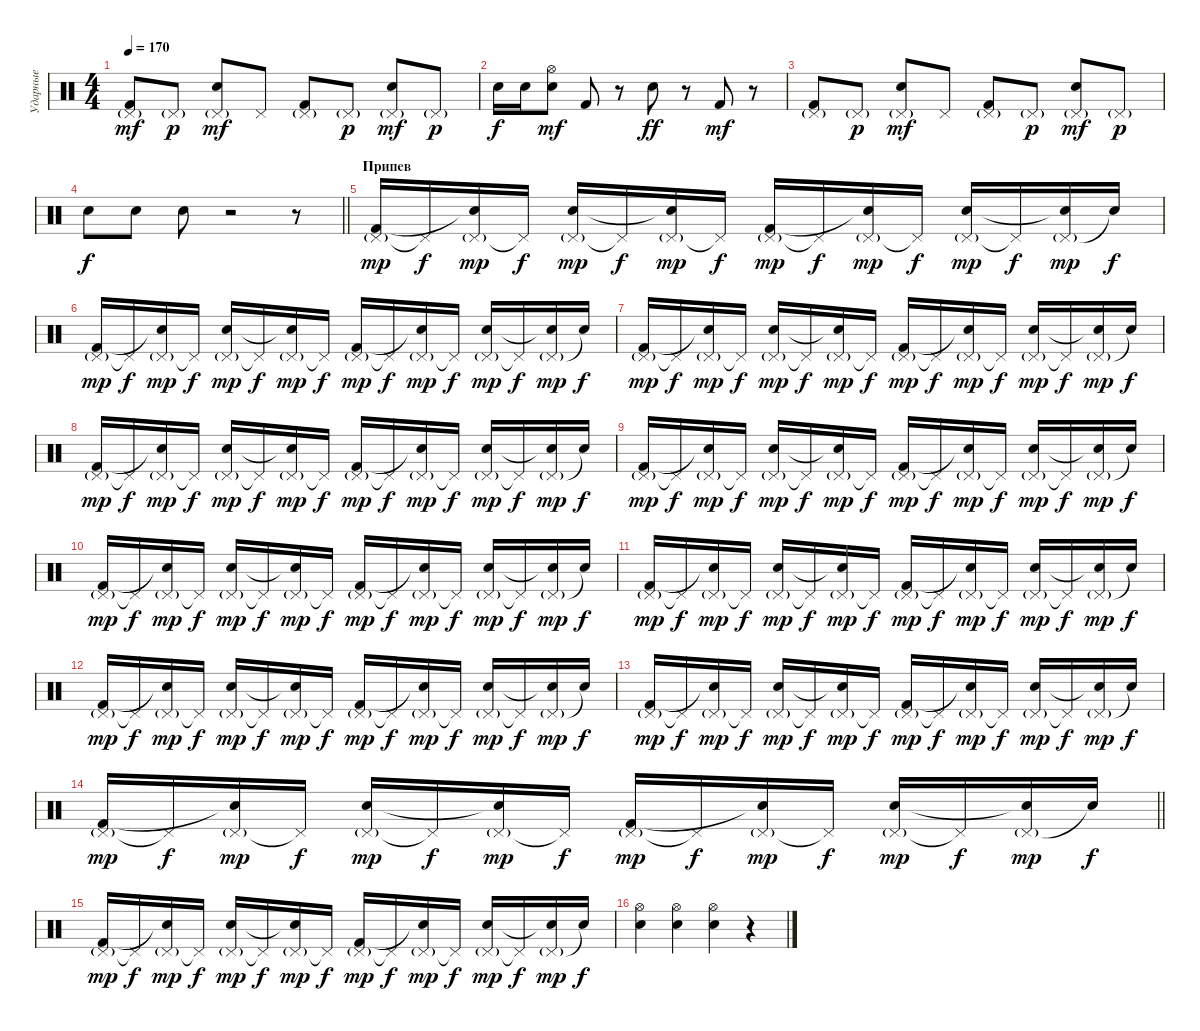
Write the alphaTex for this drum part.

\track ("Ударные" "Ударные") {instrument percussion}
\staff {score}
\articulation defaults
\ts (4 4)
\tempo 170
\clef neutral
\ks c
("Pedal Hi-Hat (hit)"{g} "Kick (hit) 2").8{dy mf} "Pedal Hi-Hat (hit)"{g}.8{dy p} ("Pedal Hi-Hat (hit)"{g} "Electric Snare (hit)").8{dy mf} "Pedal Hi-Hat (hit)".8 ("Pedal Hi-Hat (hit)"{g} "Kick (hit) 2").8 "Pedal Hi-Hat (hit)"{g}.8{dy p} ("Pedal Hi-Hat (hit)"{g} "Electric Snare (hit)").8{dy mf} "Pedal Hi-Hat (hit)"{g}.8{dy p} |
"Snare (hit) 2".16{dy f} "Snare (hit) 2".16 ("Hi-Hat (open)" "Electric Snare (hit)").8{dy mf} "Kick (hit) 2".8 r.8 "Electric Snare (hit)".8{dy ff} r.8 "Kick (hit) 2".8{dy mf} r.8 |
("Pedal Hi-Hat (hit)"{g} "Kick (hit) 2").8 "Pedal Hi-Hat (hit)"{g}.8{dy p} ("Pedal Hi-Hat (hit)"{g} "Electric Snare (hit)").8{dy mf} "Pedal Hi-Hat (hit)".8 ("Pedal Hi-Hat (hit)"{g} "Kick (hit) 2").8 "Pedal Hi-Hat (hit)"{g}.8{dy p} ("Pedal Hi-Hat (hit)"{g} "Electric Snare (hit)").8{dy mf} "Pedal Hi-Hat (hit)"{g}.8{dy p} |
\barLineRight lightlight "Electric Snare (hit)".8{dy f} "Electric Snare (hit)".8 "Electric Snare (hit)".8
r.2 r.8 |
\section ("" "Припев")
("Pedal Hi-Hat (hit)"{g} "Kick (hit) 2").16{dy mp} "Pedal Hi-Hat (hit)"{t}.16{dy f} ("Pedal Hi-Hat (hit)"{g} "Snare (hit)"{t}).16{dy mp} "Pedal Hi-Hat (hit)"{t}.16{dy f} ("Pedal Hi-Hat (hit)"{g} "Electric Snare (hit)").16{dy mp} "Pedal Hi-Hat (hit)"{t}.16{dy f} ("Pedal Hi-Hat (hit)"{g} "Snare (hit)"{t}).16{dy mp} "Pedal Hi-Hat (hit)"{t}.16{dy f} ("Pedal Hi-Hat (hit)"{g} "Kick (hit) 2").16{dy mp} "Pedal Hi-Hat (hit)"{t}.16{dy f} ("Pedal Hi-Hat (hit)"{g} "Snare (hit)"{t}).16{dy mp} "Pedal Hi-Hat (hit)"{t}.16{dy f} ("Pedal Hi-Hat (hit)"{g} "Electric Snare (hit)").16{dy mp} "Pedal Hi-Hat (hit)"{t}.16{dy f} ("Pedal Hi-Hat (hit)"{g} "Snare (hit)"{t}).16{dy mp} "Snare (hit)"{t}.16{dy f} |
("Pedal Hi-Hat (hit)"{g} "Kick (hit) 2").16{dy mp} "Pedal Hi-Hat (hit)"{t}.16{dy f} ("Pedal Hi-Hat (hit)"{g} "Snare (hit)"{t}).16{dy mp} "Pedal Hi-Hat (hit)"{t}.16{dy f} ("Pedal Hi-Hat (hit)"{g} "Electric Snare (hit)").16{dy mp} "Pedal Hi-Hat (hit)"{t}.16{dy f} ("Pedal Hi-Hat (hit)"{g} "Snare (hit)"{t}).16{dy mp} "Pedal Hi-Hat (hit)"{t}.16{dy f} ("Pedal Hi-Hat (hit)"{g} "Kick (hit) 2").16{dy mp} "Pedal Hi-Hat (hit)"{t}.16{dy f} ("Pedal Hi-Hat (hit)"{g} "Snare (hit)"{t}).16{dy mp} "Pedal Hi-Hat (hit)"{t}.16{dy f} ("Pedal Hi-Hat (hit)"{g} "Electric Snare (hit)").16{dy mp} "Pedal Hi-Hat (hit)"{t}.16{dy f} ("Pedal Hi-Hat (hit)"{g} "Snare (hit)"{t}).16{dy mp} "Snare (hit)"{t}.16{dy f} |
("Pedal Hi-Hat (hit)"{g} "Kick (hit) 2").16{dy mp} "Pedal Hi-Hat (hit)"{t}.16{dy f} ("Pedal Hi-Hat (hit)"{g} "Snare (hit)"{t}).16{dy mp} "Pedal Hi-Hat (hit)"{t}.16{dy f} ("Pedal Hi-Hat (hit)"{g} "Electric Snare (hit)").16{dy mp} "Pedal Hi-Hat (hit)"{t}.16{dy f} ("Pedal Hi-Hat (hit)"{g} "Snare (hit)"{t}).16{dy mp} "Pedal Hi-Hat (hit)"{t}.16{dy f} ("Pedal Hi-Hat (hit)"{g} "Kick (hit) 2").16{dy mp} "Pedal Hi-Hat (hit)"{t}.16{dy f} ("Pedal Hi-Hat (hit)"{g} "Snare (hit)"{t}).16{dy mp} "Pedal Hi-Hat (hit)"{t}.16{dy f} ("Pedal Hi-Hat (hit)"{g} "Electric Snare (hit)").16{dy mp} "Pedal Hi-Hat (hit)"{t}.16{dy f} ("Pedal Hi-Hat (hit)"{g} "Snare (hit)"{t}).16{dy mp} "Snare (hit)"{t}.16{dy f} |
("Pedal Hi-Hat (hit)"{g} "Kick (hit) 2").16{dy mp} "Pedal Hi-Hat (hit)"{t}.16{dy f} ("Pedal Hi-Hat (hit)"{g} "Snare (hit)"{t}).16{dy mp} "Pedal Hi-Hat (hit)"{t}.16{dy f} ("Pedal Hi-Hat (hit)"{g} "Electric Snare (hit)").16{dy mp} "Pedal Hi-Hat (hit)"{t}.16{dy f} ("Pedal Hi-Hat (hit)"{g} "Snare (hit)"{t}).16{dy mp} "Pedal Hi-Hat (hit)"{t}.16{dy f} ("Pedal Hi-Hat (hit)"{g} "Kick (hit) 2").16{dy mp} "Pedal Hi-Hat (hit)"{t}.16{dy f} ("Pedal Hi-Hat (hit)"{g} "Snare (hit)"{t}).16{dy mp} "Pedal Hi-Hat (hit)"{t}.16{dy f} ("Pedal Hi-Hat (hit)"{g} "Electric Snare (hit)").16{dy mp} "Pedal Hi-Hat (hit)"{t}.16{dy f} ("Pedal Hi-Hat (hit)"{g} "Snare (hit)"{t}).16{dy mp} "Snare (hit)"{t}.16{dy f} |
("Pedal Hi-Hat (hit)"{g} "Kick (hit) 2").16{dy mp} "Pedal Hi-Hat (hit)"{t}.16{dy f} ("Pedal Hi-Hat (hit)"{g} "Snare (hit)"{t}).16{dy mp} "Pedal Hi-Hat (hit)"{t}.16{dy f} ("Pedal Hi-Hat (hit)"{g} "Electric Snare (hit)").16{dy mp} "Pedal Hi-Hat (hit)"{t}.16{dy f} ("Pedal Hi-Hat (hit)"{g} "Snare (hit)"{t}).16{dy mp} "Pedal Hi-Hat (hit)"{t}.16{dy f} ("Pedal Hi-Hat (hit)"{g} "Kick (hit) 2").16{dy mp} "Pedal Hi-Hat (hit)"{t}.16{dy f} ("Pedal Hi-Hat (hit)"{g} "Snare (hit)"{t}).16{dy mp} "Pedal Hi-Hat (hit)"{t}.16{dy f} ("Pedal Hi-Hat (hit)"{g} "Electric Snare (hit)").16{dy mp} "Pedal Hi-Hat (hit)"{t}.16{dy f} ("Pedal Hi-Hat (hit)"{g} "Snare (hit)"{t}).16{dy mp} "Snare (hit)"{t}.16{dy f} |
("Pedal Hi-Hat (hit)"{g} "Kick (hit) 2").16{dy mp} "Pedal Hi-Hat (hit)"{t}.16{dy f} ("Pedal Hi-Hat (hit)"{g} "Snare (hit)"{t}).16{dy mp} "Pedal Hi-Hat (hit)"{t}.16{dy f} ("Pedal Hi-Hat (hit)"{g} "Electric Snare (hit)").16{dy mp} "Pedal Hi-Hat (hit)"{t}.16{dy f} ("Pedal Hi-Hat (hit)"{g} "Snare (hit)"{t}).16{dy mp} "Pedal Hi-Hat (hit)"{t}.16{dy f} ("Pedal Hi-Hat (hit)"{g} "Kick (hit) 2").16{dy mp} "Pedal Hi-Hat (hit)"{t}.16{dy f} ("Pedal Hi-Hat (hit)"{g} "Snare (hit)"{t}).16{dy mp} "Pedal Hi-Hat (hit)"{t}.16{dy f} ("Pedal Hi-Hat (hit)"{g} "Electric Snare (hit)").16{dy mp} "Pedal Hi-Hat (hit)"{t}.16{dy f} ("Pedal Hi-Hat (hit)"{g} "Snare (hit)"{t}).16{dy mp} "Snare (hit)"{t}.16{dy f} |
("Pedal Hi-Hat (hit)"{g} "Kick (hit) 2").16{dy mp} "Pedal Hi-Hat (hit)"{t}.16{dy f} ("Pedal Hi-Hat (hit)"{g} "Snare (hit)"{t}).16{dy mp} "Pedal Hi-Hat (hit)"{t}.16{dy f} ("Pedal Hi-Hat (hit)"{g} "Electric Snare (hit)").16{dy mp} "Pedal Hi-Hat (hit)"{t}.16{dy f} ("Pedal Hi-Hat (hit)"{g} "Snare (hit)"{t}).16{dy mp} "Pedal Hi-Hat (hit)"{t}.16{dy f} ("Pedal Hi-Hat (hit)"{g} "Kick (hit) 2").16{dy mp} "Pedal Hi-Hat (hit)"{t}.16{dy f} ("Pedal Hi-Hat (hit)"{g} "Snare (hit)"{t}).16{dy mp} "Pedal Hi-Hat (hit)"{t}.16{dy f} ("Pedal Hi-Hat (hit)"{g} "Electric Snare (hit)").16{dy mp} "Pedal Hi-Hat (hit)"{t}.16{dy f} ("Pedal Hi-Hat (hit)"{g} "Snare (hit)"{t}).16{dy mp} "Snare (hit)"{t}.16{dy f} |
("Pedal Hi-Hat (hit)"{g} "Kick (hit) 2").16{dy mp} "Pedal Hi-Hat (hit)"{t}.16{dy f} ("Pedal Hi-Hat (hit)"{g} "Snare (hit)"{t}).16{dy mp} "Pedal Hi-Hat (hit)"{t}.16{dy f} ("Pedal Hi-Hat (hit)"{g} "Electric Snare (hit)").16{dy mp} "Pedal Hi-Hat (hit)"{t}.16{dy f} ("Pedal Hi-Hat (hit)"{g} "Snare (hit)"{t}).16{dy mp} "Pedal Hi-Hat (hit)"{t}.16{dy f} ("Pedal Hi-Hat (hit)"{g} "Kick (hit) 2").16{dy mp} "Pedal Hi-Hat (hit)"{t}.16{dy f} ("Pedal Hi-Hat (hit)"{g} "Snare (hit)"{t}).16{dy mp} "Pedal Hi-Hat (hit)"{t}.16{dy f} ("Pedal Hi-Hat (hit)"{g} "Electric Snare (hit)").16{dy mp} "Pedal Hi-Hat (hit)"{t}.16{dy f} ("Pedal Hi-Hat (hit)"{g} "Snare (hit)"{t}).16{dy mp} "Snare (hit)"{t}.16{dy f} |
("Pedal Hi-Hat (hit)"{g} "Kick (hit) 2").16{dy mp} "Pedal Hi-Hat (hit)"{t}.16{dy f} ("Pedal Hi-Hat (hit)"{g} "Snare (hit)"{t}).16{dy mp} "Pedal Hi-Hat (hit)"{t}.16{dy f} ("Pedal Hi-Hat (hit)"{g} "Electric Snare (hit)").16{dy mp} "Pedal Hi-Hat (hit)"{t}.16{dy f} ("Pedal Hi-Hat (hit)"{g} "Snare (hit)"{t}).16{dy mp} "Pedal Hi-Hat (hit)"{t}.16{dy f} ("Pedal Hi-Hat (hit)"{g} "Kick (hit) 2").16{dy mp} "Pedal Hi-Hat (hit)"{t}.16{dy f} ("Pedal Hi-Hat (hit)"{g} "Snare (hit)"{t}).16{dy mp} "Pedal Hi-Hat (hit)"{t}.16{dy f} ("Pedal Hi-Hat (hit)"{g} "Electric Snare (hit)").16{dy mp} "Pedal Hi-Hat (hit)"{t}.16{dy f} ("Pedal Hi-Hat (hit)"{g} "Snare (hit)"{t}).16{dy mp} "Snare (hit)"{t}.16{dy f} |
\barLineRight lightlight
("Pedal Hi-Hat (hit)"{g} "Kick (hit) 2").16{dy mp} "Pedal Hi-Hat (hit)"{t}.16{dy f} ("Pedal Hi-Hat (hit)"{g} "Snare (hit)"{t}).16{dy mp} "Pedal Hi-Hat (hit)"{t}.16{dy f} ("Pedal Hi-Hat (hit)"{g} "Electric Snare (hit)").16{dy mp} "Pedal Hi-Hat (hit)"{t}.16{dy f} ("Pedal Hi-Hat (hit)"{g} "Snare (hit)"{t}).16{dy mp} "Pedal Hi-Hat (hit)"{t}.16{dy f} ("Pedal Hi-Hat (hit)"{g} "Kick (hit) 2").16{dy mp} "Pedal Hi-Hat (hit)"{t}.16{dy f} ("Pedal Hi-Hat (hit)"{g} "Snare (hit)"{t}).16{dy mp} "Pedal Hi-Hat (hit)"{t}.16{dy f} ("Pedal Hi-Hat (hit)"{g} "Electric Snare (hit)").16{dy mp} "Pedal Hi-Hat (hit)"{t}.16{dy f} ("Pedal Hi-Hat (hit)"{g} "Snare (hit)"{t}).16{dy mp} "Snare (hit)"{t}.16{dy f} |
("Pedal Hi-Hat (hit)"{g} "Kick (hit) 2").16{dy mp} "Pedal Hi-Hat (hit)"{t}.16{dy f} ("Pedal Hi-Hat (hit)"{g} "Snare (hit)"{t}).16{dy mp} "Pedal Hi-Hat (hit)"{t}.16{dy f} ("Pedal Hi-Hat (hit)"{g} "Electric Snare (hit)").16{dy mp} "Pedal Hi-Hat (hit)"{t}.16{dy f} ("Pedal Hi-Hat (hit)"{g} "Snare (hit)"{t}).16{dy mp} "Pedal Hi-Hat (hit)"{t}.16{dy f} ("Pedal Hi-Hat (hit)"{g} "Kick (hit) 2").16{dy mp} "Pedal Hi-Hat (hit)"{t}.16{dy f} ("Pedal Hi-Hat (hit)"{g} "Snare (hit)"{t}).16{dy mp} "Pedal Hi-Hat (hit)"{t}.16{dy f} ("Pedal Hi-Hat (hit)"{g} "Electric Snare (hit)").16{dy mp} "Pedal Hi-Hat (hit)"{t}.16{dy f} ("Pedal Hi-Hat (hit)"{g} "Snare (hit)"{t}).16{dy mp} "Snare (hit)"{t}.16{dy f} |
("Hi-Hat (open)" "Electric Snare (hit)").4 ("Hi-Hat (open)" "Electric Snare (hit)").4 ("Hi-Hat (open)" "Electric Snare (hit)").4 r.4
